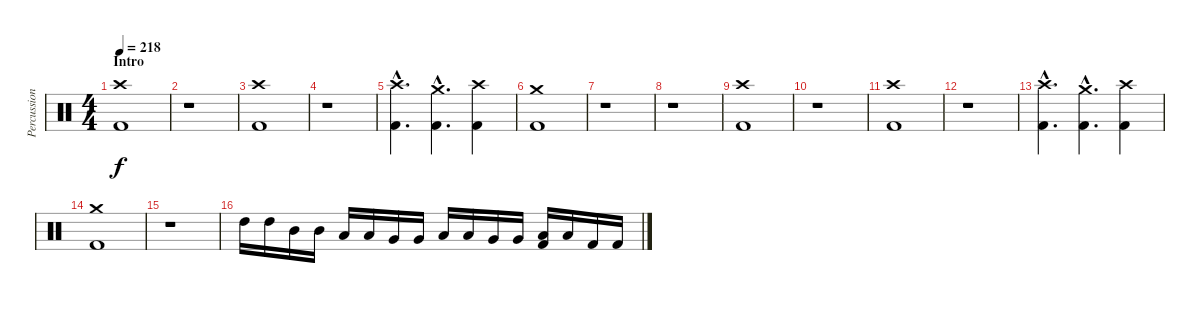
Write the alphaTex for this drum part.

\track ("Percussion" "Percussion") {instrument percussion}
\staff {score}
\articulation defaults
\ts (4 4)
\section ("" "Intro")
\tempo 218
\clef neutral
\ks c
("Crash high (hit)" "Kick (hit) 2").1{dy f} |
r.1 |
("Crash high (hit)" "Kick (hit) 2").1 |
r.1 |
("Crash high (hit)"{hac} "Kick (hit) 2"{hac}).4{d} ("Crash medium (hit)"{hac} "Kick (hit) 2"{hac}).4{d} ("Crash high (hit)" "Kick (hit) 2").4 |
("Crash medium (hit)" "Kick (hit) 2").1 |
r.1 |
r.1 |
("Crash high (hit)" "Kick (hit) 2").1 |
r.1 |
("Crash high (hit)" "Kick (hit) 2").1 |
r.1 |
("Crash high (hit)"{hac} "Kick (hit) 2"{hac}).4{d} ("Crash medium (hit)"{hac} "Kick (hit) 2"{hac}).4{d} ("Crash high (hit)" "Kick (hit) 2").4 |
("Crash medium (hit)" "Kick (hit) 2").1 |
r.1 |
"High Tom (hit)".16 "High Tom (hit)".16 "Mid Tom (hit)".16 "Mid Tom (hit)".16 "Low Tom (hit)".16 "Low Tom (hit)".16 "Very Low Tom (hit)".16 "Very Low Tom (hit)".16 "Low Tom (hit)".16 "Low Tom (hit)".16 "Very Low Tom (hit)".16 "Very Low Tom (hit)".16 ("Low Floor Tom (hit)" "Kick (hit) 2").16 "Low Floor Tom (hit)".16 "Kick (hit) 2".16 "Kick (hit) 2".16
